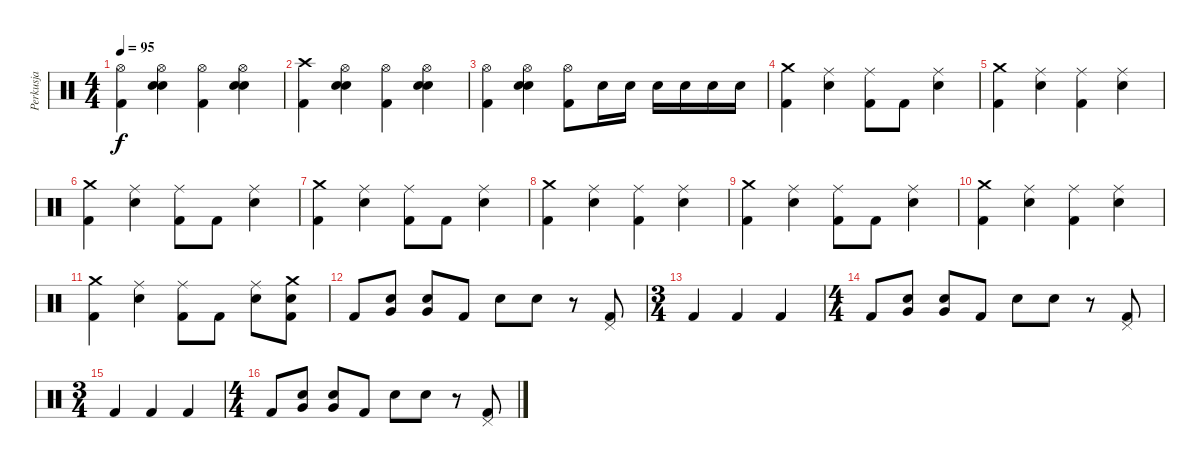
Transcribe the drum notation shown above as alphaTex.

\track ("Perkusja" "Perkusja") {instrument percussion}
\staff {score}
\articulation defaults
\ts (4 4)
\tempo 95
\clef neutral
\ks c
("Hi-Hat (open)" "Kick (hit) 2").4{dy f} ("Hi-Hat (open)" "Electric Snare (hit)" "Snare (hit) 2").4 ("Hi-Hat (open)" "Kick (hit) 2").4 ("Hi-Hat (open)" "Electric Snare (hit)" "Snare (hit) 2").4 |
("Crash high (hit)" "Kick (hit) 2").4 ("Hi-Hat (open)" "Electric Snare (hit)" "Snare (hit) 2").4 ("Hi-Hat (open)" "Kick (hit) 2").4 ("Hi-Hat (open)" "Electric Snare (hit)" "Snare (hit) 2").4 |
("Hi-Hat (open)" "Kick (hit) 2").4 ("Hi-Hat (open)" "Electric Snare (hit)" "Snare (hit) 2").4 ("Hi-Hat (open)" "Kick (hit) 2").8 "Snare (hit) 2".16 "Snare (hit) 2".16 "Snare (hit) 2".16 "Snare (hit) 2".16 "Snare (hit) 2".16 "Snare (hit) 2".16 |
("Crash medium (hit)" "Kick (hit) 2").4 ("Ride (middle)" "Snare (hit) 2").4 ("Ride (middle)" "Kick (hit) 2").8 "Kick (hit) 2".8 ("Ride (middle)" "Snare (hit) 2").4 |
("Crash medium (hit)" "Kick (hit) 2").4 ("Ride (middle)" "Snare (hit) 2").4 ("Ride (middle)" "Kick (hit) 2").4 ("Ride (middle)" "Snare (hit) 2").4 |
("Crash medium (hit)" "Kick (hit) 2").4 ("Ride (middle)" "Snare (hit) 2").4 ("Ride (middle)" "Kick (hit) 2").8 "Kick (hit) 2".8 ("Ride (middle)" "Snare (hit) 2").4 |
("Crash medium (hit)" "Kick (hit) 2").4 ("Ride (middle)" "Snare (hit) 2").4 ("Ride (middle)" "Kick (hit) 2").8 "Kick (hit) 2".8 ("Ride (middle)" "Snare (hit) 2").4 |
("Crash medium (hit)" "Kick (hit) 2").4 ("Ride (middle)" "Snare (hit) 2").4 ("Ride (middle)" "Kick (hit) 2").4 ("Ride (middle)" "Snare (hit) 2").4 |
("Crash medium (hit)" "Kick (hit) 2").4 ("Ride (middle)" "Snare (hit) 2").4 ("Ride (middle)" "Kick (hit) 2").8 "Kick (hit) 2".8 ("Ride (middle)" "Snare (hit) 2").4 |
("Crash medium (hit)" "Kick (hit) 2").4 ("Ride (middle)" "Snare (hit) 2").4 ("Ride (middle)" "Kick (hit) 2").4 ("Ride (middle)" "Snare (hit) 2").4 |
("Crash medium (hit)" "Kick (hit) 2").4 ("Ride (middle)" "Snare (hit) 2").4 ("Ride (middle)" "Kick (hit) 2").8 "Kick (hit) 2".8 ("Ride (middle)" "Snare (hit) 2").8 ("Crash medium (hit)" "Snare (hit) 2" "Kick (hit) 2").8 |
"Kick (hit) 2".8 ("Very Low Tom (hit)" "Snare (hit) 2").8 ("Very Low Tom (hit)" "Snare (hit) 2").8 "Kick (hit) 2".8 "Electric Snare (hit)".8 "Electric Snare (hit)".8 r.8 ("Pedal Hi-Hat (hit)" "Kick (hit) 2").8 |
\ts (3 4)
"Kick (hit) 2".4 "Kick (hit) 2".4 "Kick (hit) 2".4 |
\ts (4 4)
"Kick (hit) 2".8 ("Very Low Tom (hit)" "Snare (hit) 2").8 ("Very Low Tom (hit)" "Snare (hit) 2").8 "Kick (hit) 2".8 "Electric Snare (hit)".8 "Electric Snare (hit)".8 r.8 ("Pedal Hi-Hat (hit)" "Kick (hit) 2").8 |
\ts (3 4)
"Kick (hit) 2".4 "Kick (hit) 2".4 "Kick (hit) 2".4 |
\ts (4 4)
"Kick (hit) 2".8 ("Very Low Tom (hit)" "Snare (hit) 2").8 ("Very Low Tom (hit)" "Snare (hit) 2").8 "Kick (hit) 2".8 "Electric Snare (hit)".8 "Electric Snare (hit)".8 r.8 ("Pedal Hi-Hat (hit)" "Kick (hit) 2").8
